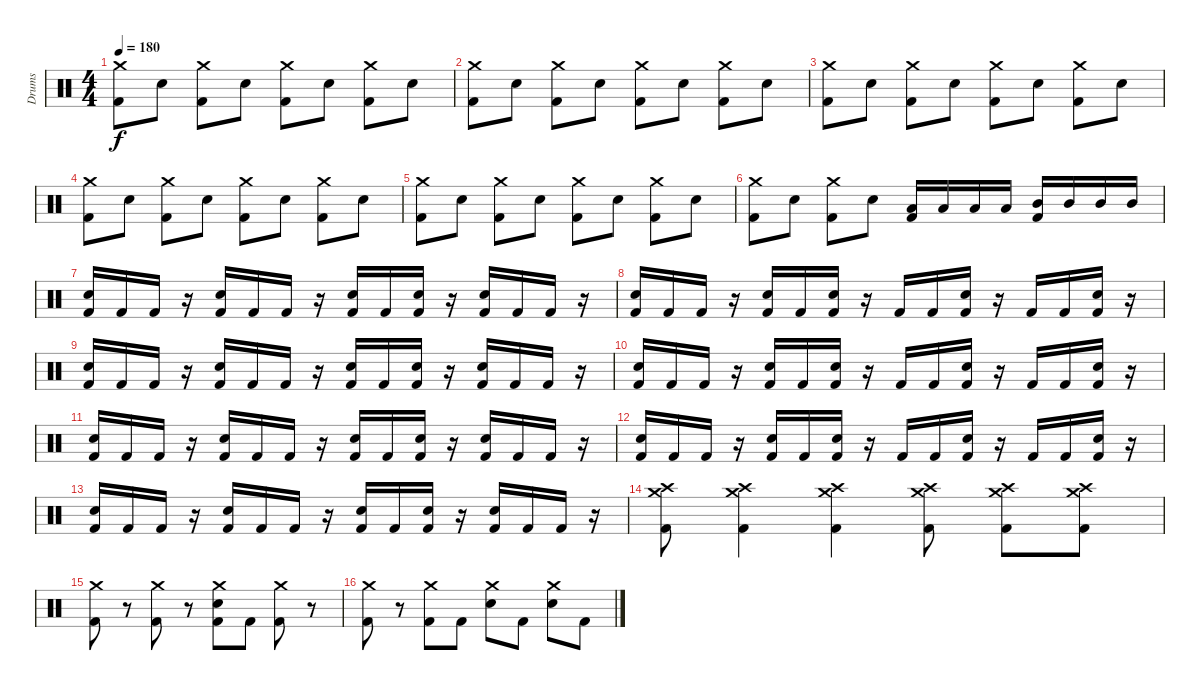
\track ("Drums" "Drums") {instrument percussion}
\staff {score}
\articulation defaults
\ts (4 4)
\tempo 180
\clef neutral
\ks c
("Crash medium (hit)" "Kick (hit) 2").8{dy f} "Snare (hit) 2".8 ("Crash medium (hit)" "Kick (hit) 2").8 "Snare (hit) 2".8 ("Crash medium (hit)" "Kick (hit) 2").8 "Snare (hit) 2".8 ("Crash medium (hit)" "Kick (hit) 2").8 "Snare (hit) 2".8 |
("Crash medium (hit)" "Kick (hit) 2").8 "Snare (hit) 2".8 ("Crash medium (hit)" "Kick (hit) 2").8 "Snare (hit) 2".8 ("Crash medium (hit)" "Kick (hit) 2").8 "Snare (hit) 2".8 ("Crash medium (hit)" "Kick (hit) 2").8 "Snare (hit) 2".8 |
("Crash medium (hit)" "Kick (hit) 2").8 "Snare (hit) 2".8 ("Crash medium (hit)" "Kick (hit) 2").8 "Snare (hit) 2".8 ("Crash medium (hit)" "Kick (hit) 2").8 "Snare (hit) 2".8 ("Crash medium (hit)" "Kick (hit) 2").8 "Snare (hit) 2".8 |
("Crash medium (hit)" "Kick (hit) 2").8 "Snare (hit) 2".8 ("Crash medium (hit)" "Kick (hit) 2").8 "Snare (hit) 2".8 ("Crash medium (hit)" "Kick (hit) 2").8 "Snare (hit) 2".8 ("Crash medium (hit)" "Kick (hit) 2").8 "Snare (hit) 2".8 |
("Crash medium (hit)" "Kick (hit) 2").8 "Snare (hit) 2".8 ("Crash medium (hit)" "Kick (hit) 2").8 "Snare (hit) 2".8 ("Crash medium (hit)" "Kick (hit) 2").8 "Snare (hit) 2".8 ("Crash medium (hit)" "Kick (hit) 2").8 "Snare (hit) 2".8 |
("Crash medium (hit)" "Kick (hit) 2").8 "Snare (hit) 2".8 ("Crash medium (hit)" "Kick (hit) 2").8 "Snare (hit) 2".8 ("Low Tom (hit)" "Kick (hit) 2").16 "Low Tom (hit)".16 "Low Tom (hit)".16 "Low Tom (hit)".16 ("Mid Tom (hit)" "Kick (hit) 2").16 "Mid Tom (hit)".16 "Mid Tom (hit)".16 "Mid Tom (hit)".16 |
("Snare (hit) 2" "Kick (hit) 2").16 "Kick (hit) 2".16 "Kick (hit) 2".16 r.16 ("Snare (hit) 2" "Kick (hit) 2").16 "Kick (hit) 2".16 "Kick (hit) 2".16 r.16 ("Snare (hit) 2" "Kick (hit) 2").16 "Kick (hit) 2".16 ("Snare (hit) 2" "Kick (hit) 2").16 r.16 ("Snare (hit) 2" "Kick (hit) 2").16 "Kick (hit) 2".16 "Kick (hit) 2".16 r.16 |
("Snare (hit) 2" "Kick (hit) 2").16 "Kick (hit) 2".16 "Kick (hit) 2".16 r.16 ("Snare (hit) 2" "Kick (hit) 2").16 "Kick (hit) 2".16 ("Snare (hit) 2" "Kick (hit) 2").16 r.16 "Kick (hit) 2".16 "Kick (hit) 2".16 ("Snare (hit) 2" "Kick (hit) 2").16 r.16 "Kick (hit) 2".16 "Kick (hit) 2".16 ("Snare (hit) 2" "Kick (hit) 2").16 r.16 |
("Snare (hit) 2" "Kick (hit) 2").16 "Kick (hit) 2".16 "Kick (hit) 2".16 r.16 ("Snare (hit) 2" "Kick (hit) 2").16 "Kick (hit) 2".16 "Kick (hit) 2".16 r.16 ("Snare (hit) 2" "Kick (hit) 2").16 "Kick (hit) 2".16 ("Snare (hit) 2" "Kick (hit) 2").16 r.16 ("Snare (hit) 2" "Kick (hit) 2").16 "Kick (hit) 2".16 "Kick (hit) 2".16 r.16 |
("Snare (hit) 2" "Kick (hit) 2").16 "Kick (hit) 2".16 "Kick (hit) 2".16 r.16 ("Snare (hit) 2" "Kick (hit) 2").16 "Kick (hit) 2".16 ("Snare (hit) 2" "Kick (hit) 2").16 r.16 "Kick (hit) 2".16 "Kick (hit) 2".16 ("Snare (hit) 2" "Kick (hit) 2").16 r.16 "Kick (hit) 2".16 "Kick (hit) 2".16 ("Snare (hit) 2" "Kick (hit) 2").16 r.16 |
("Snare (hit) 2" "Kick (hit) 2").16 "Kick (hit) 2".16 "Kick (hit) 2".16 r.16 ("Snare (hit) 2" "Kick (hit) 2").16 "Kick (hit) 2".16 "Kick (hit) 2".16 r.16 ("Snare (hit) 2" "Kick (hit) 2").16 "Kick (hit) 2".16 ("Snare (hit) 2" "Kick (hit) 2").16 r.16 ("Snare (hit) 2" "Kick (hit) 2").16 "Kick (hit) 2".16 "Kick (hit) 2".16 r.16 |
("Snare (hit) 2" "Kick (hit) 2").16 "Kick (hit) 2".16 "Kick (hit) 2".16 r.16 ("Snare (hit) 2" "Kick (hit) 2").16 "Kick (hit) 2".16 ("Snare (hit) 2" "Kick (hit) 2").16 r.16 "Kick (hit) 2".16 "Kick (hit) 2".16 ("Snare (hit) 2" "Kick (hit) 2").16 r.16 "Kick (hit) 2".16 "Kick (hit) 2".16 ("Snare (hit) 2" "Kick (hit) 2").16 r.16 |
("Snare (hit) 2" "Kick (hit) 2").16 "Kick (hit) 2".16 "Kick (hit) 2".16 r.16 ("Snare (hit) 2" "Kick (hit) 2").16 "Kick (hit) 2".16 "Kick (hit) 2".16 r.16 ("Snare (hit) 2" "Kick (hit) 2").16 "Kick (hit) 2".16 ("Snare (hit) 2" "Kick (hit) 2").16 r.16 ("Snare (hit) 2" "Kick (hit) 2").16 "Kick (hit) 2".16 "Kick (hit) 2".16 r.16 |
("Crash high (hit)" "Crash medium (hit)" "Kick (hit) 2").8 ("Crash high (hit)" "Crash medium (hit)" "Kick (hit) 2").4 ("Crash high (hit)" "Crash medium (hit)" "Kick (hit) 2").4 ("Crash high (hit)" "Crash medium (hit)" "Kick (hit) 2").8 ("Crash high (hit)" "Crash medium (hit)" "Kick (hit) 2").8 ("Crash high (hit)" "Crash medium (hit)" "Kick (hit) 2").8 |
("Crash medium (hit)" "Kick (hit) 2").8 r.8 ("Crash medium (hit)" "Kick (hit) 2").8 r.8 ("Crash medium (hit)" "Snare (hit) 2" "Kick (hit) 2").8 "Kick (hit) 2".8 ("Crash medium (hit)" "Kick (hit) 2").8 r.8 |
("Crash medium (hit)" "Kick (hit) 2").8 r.8 ("Crash medium (hit)" "Kick (hit) 2").8 "Kick (hit) 2".8 ("Crash medium (hit)" "Snare (hit) 2").8 "Kick (hit) 2".8 ("Crash medium (hit)" "Snare (hit) 2").8 "Kick (hit) 2".8
